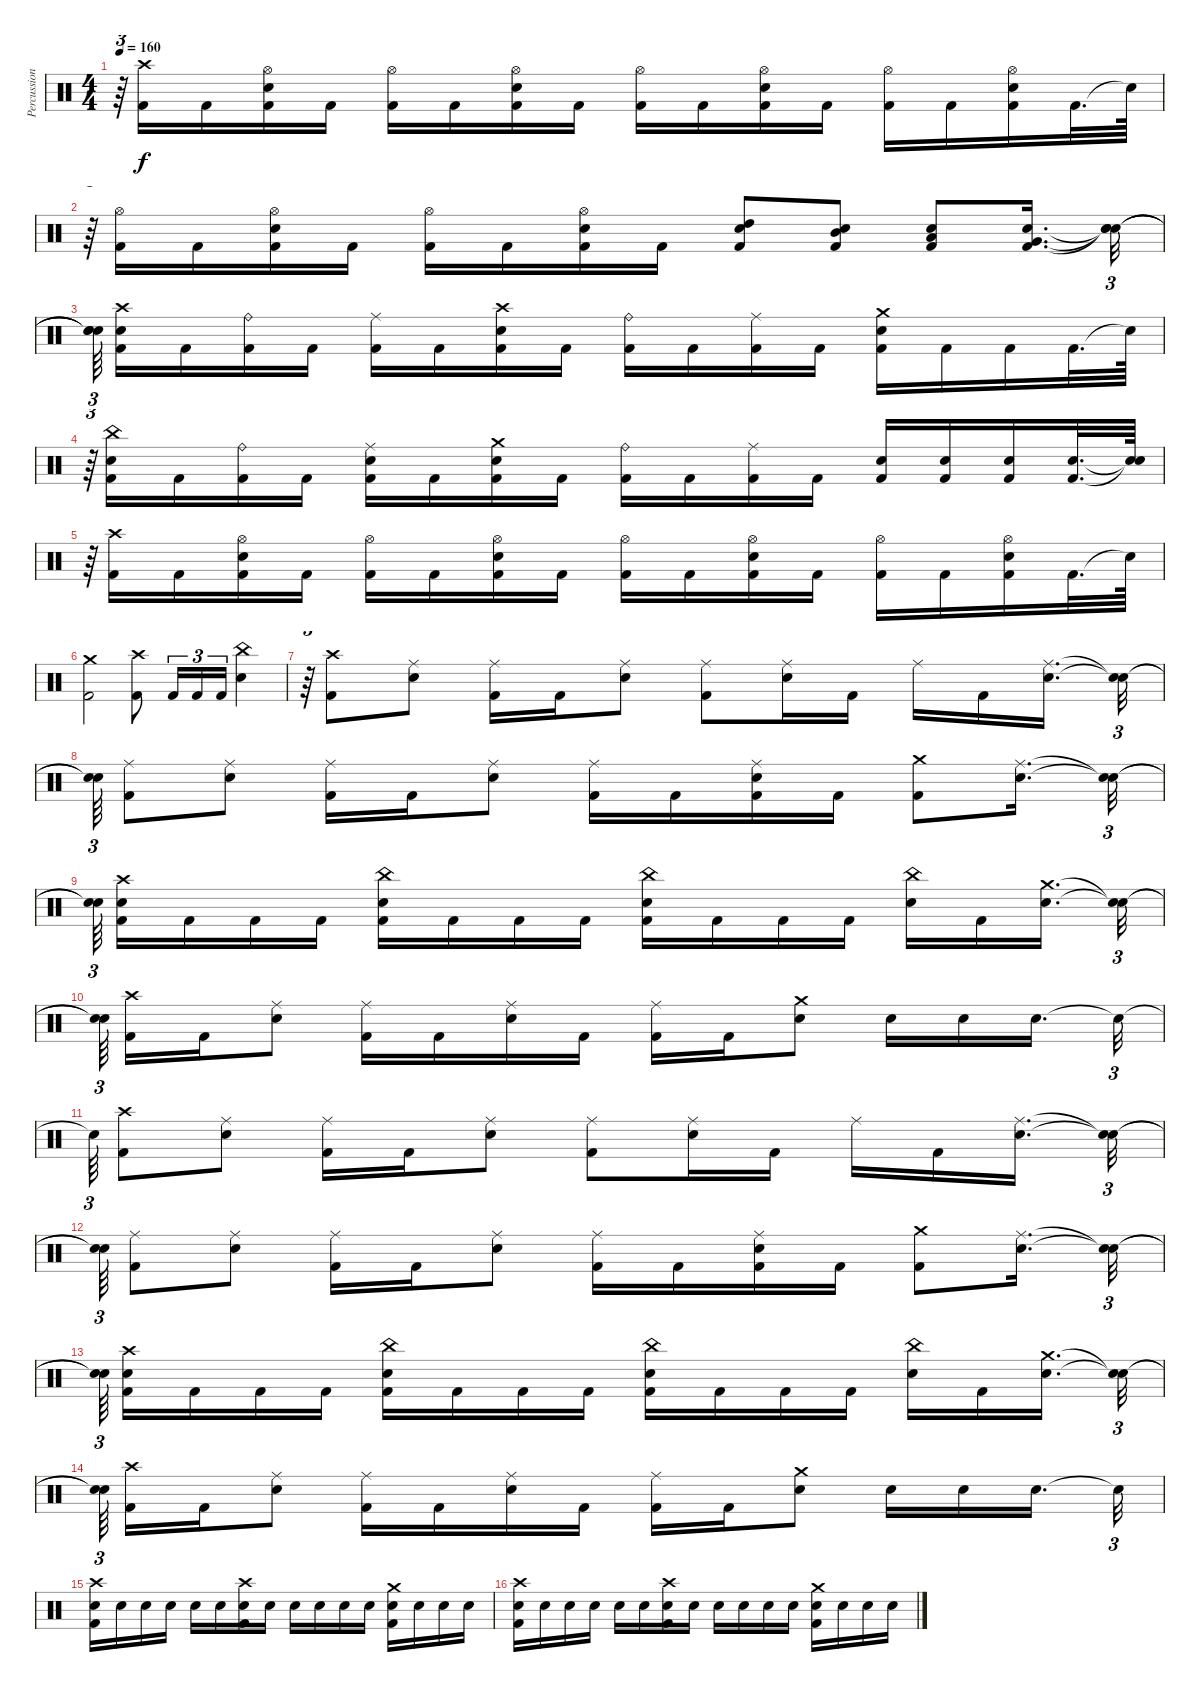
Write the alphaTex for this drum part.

\track ("Percussion" "Percussion") {instrument percussion}
\staff {score}
\articulation defaults
\ts (4 4)
\tempo 160
\clef neutral
\ks c
r.64{tu (3 2) dy f} ("Crash high (hit)" "Kick (hit) 2").16 "Kick (hit) 2".16 ("Hi-Hat (open)" "Electric Snare (hit)" "Kick (hit) 2").16 "Kick (hit) 2".16 ("Hi-Hat (open)" "Kick (hit) 2").16 "Kick (hit) 2".16 ("Hi-Hat (open)" "Electric Snare (hit)" "Kick (hit) 2").16 "Kick (hit) 2".16 ("Hi-Hat (open)" "Kick (hit) 2").16 "Kick (hit) 2".16 ("Hi-Hat (open)" "Electric Snare (hit)" "Kick (hit) 2").16 "Kick (hit) 2".16 ("Hi-Hat (open)" "Kick (hit) 2").16 "Kick (hit) 2".16 ("Hi-Hat (open)" "Electric Snare (hit)" "Kick (hit) 2").16 "Kick (hit) 2".32{d} "Snare (hit)"{t}.64 |
r.64{tu (3 2)} ("Hi-Hat (open)" "Kick (hit) 2").16 "Kick (hit) 2".16 ("Hi-Hat (open)" "Electric Snare (hit)" "Kick (hit) 2").16 "Kick (hit) 2".16 ("Hi-Hat (open)" "Kick (hit) 2").16 "Kick (hit) 2".16 ("Hi-Hat (open)" "Electric Snare (hit)" "Kick (hit) 2").16 "Kick (hit) 2".16 ("High Tom (hit)" "Electric Snare (hit)" "Kick (hit) 2").8 ("Mid Tom (hit)" "Electric Snare (hit)" "Kick (hit) 2").8 ("Low Tom (hit)" "Electric Snare (hit)" "Kick (hit) 2").8 ("Very Low Tom (hit)" "Electric Snare (hit)" "Kick (hit) 2").16{d} ("Snare (hit)"{t} "Snare (hit)"{t} "Snare (hit)"{t}).32{tu (3 2)} |
("Snare (hit)"{t} "Snare (hit)"{t} "Snare (hit)"{t}).64{tu (3 2)} ("Crash high (hit)" "Electric Snare (hit)" "Kick (hit) 2").16 "Kick (hit) 2".16 ("Ride (bell)" "Kick (hit) 2").16 "Kick (hit) 2".16 ("Ride (middle)" "Kick (hit) 2").16 "Kick (hit) 2".16 ("Crash high (hit)" "Electric Snare (hit)" "Kick (hit) 2").16 "Kick (hit) 2".16 ("Ride (bell)" "Kick (hit) 2").16 "Kick (hit) 2".16 ("Ride (middle)" "Kick (hit) 2").16 "Kick (hit) 2".16 ("Crash medium (hit)" "Electric Snare (hit)" "Kick (hit) 2").16 "Kick (hit) 2".16 "Kick (hit) 2".16 "Kick (hit) 2".32{d} "Snare (hit)"{t}.64 |
r.64{tu (3 2)} ("China (hit)" "Electric Snare (hit)" "Kick (hit) 2").16 "Kick (hit) 2".16 ("Ride (bell)" "Kick (hit) 2").16 "Kick (hit) 2".16 ("Ride (middle)" "Electric Snare (hit)" "Kick (hit) 2").16 "Kick (hit) 2".16 ("Crash medium (hit)" "Electric Snare (hit)" "Kick (hit) 2").16 "Kick (hit) 2".16 ("Ride (bell)" "Kick (hit) 2").16 "Kick (hit) 2".16 ("Ride (middle)" "Kick (hit) 2").16 "Kick (hit) 2".16 ("Electric Snare (hit)" "Kick (hit) 2").16 ("Electric Snare (hit)" "Kick (hit) 2").16 ("Electric Snare (hit)" "Kick (hit) 2").16 ("Electric Snare (hit)" "Kick (hit) 2").32{d} ("Snare (hit)"{t} "Snare (hit)"{t}).64 |
r.64{tu (3 2)} ("Crash high (hit)" "Kick (hit) 2").16 "Kick (hit) 2".16 ("Hi-Hat (open)" "Electric Snare (hit)" "Kick (hit) 2").16 "Kick (hit) 2".16 ("Hi-Hat (open)" "Kick (hit) 2").16 "Kick (hit) 2".16 ("Hi-Hat (open)" "Electric Snare (hit)" "Kick (hit) 2").16 "Kick (hit) 2".16 ("Hi-Hat (open)" "Kick (hit) 2").16 "Kick (hit) 2".16 ("Hi-Hat (open)" "Electric Snare (hit)" "Kick (hit) 2").16 "Kick (hit) 2".16 ("Hi-Hat (open)" "Kick (hit) 2").16 "Kick (hit) 2".16 ("Hi-Hat (open)" "Electric Snare (hit)" "Kick (hit) 2").16 "Kick (hit) 2".32{d} "Snare (hit)"{t}.64 |
("Crash medium (hit)" "Kick (hit) 2").2 ("Crash high (hit)" "Kick (hit) 2").8 "Kick (hit) 2".16{tu (3 2)} "Kick (hit) 2".16{tu (3 2)} "Kick (hit) 2".16{tu (3 2)} ("China (hit)" "Electric Snare (hit)").4 |
r.64{tu (3 2)} ("Crash high (hit)" "Kick (hit) 2").8 ("Ride (middle)" "Electric Snare (hit)").8 ("Ride (middle)" "Kick (hit) 2").16 "Kick (hit) 2".16 ("Ride (middle)" "Electric Snare (hit)").8 ("Ride (middle)" "Kick (hit) 2").8 ("Ride (middle)" "Electric Snare (hit)").16 "Kick (hit) 2".16 "Ride (middle)".16 "Kick (hit) 2".16 ("Ride (middle)" "Electric Snare (hit)").16{d} ("Snare (hit)"{t} "Snare (hit)"{t}).32{tu (3 2)} |
("Snare (hit)"{t} "Snare (hit)"{t}).64{tu (3 2)} ("Ride (middle)" "Kick (hit) 2").8 ("Ride (middle)" "Electric Snare (hit)").8 ("Ride (middle)" "Kick (hit) 2").16 "Kick (hit) 2".16 ("Ride (middle)" "Electric Snare (hit)").8 ("Ride (middle)" "Kick (hit) 2").16 "Kick (hit) 2".16 ("Ride (middle)" "Electric Snare (hit)" "Kick (hit) 2").16 "Kick (hit) 2".16 ("Crash medium (hit)" "Kick (hit) 2").8 ("Ride (middle)" "Electric Snare (hit)").16{d} ("Snare (hit)"{t} "Snare (hit)"{t}).32{tu (3 2)} |
("Snare (hit)"{t} "Snare (hit)"{t}).64{tu (3 2)} ("Crash high (hit)" "Electric Snare (hit)" "Kick (hit) 2").16 "Kick (hit) 2".16 "Kick (hit) 2".16 "Kick (hit) 2".16 ("China (hit)" "Electric Snare (hit)" "Kick (hit) 2").16 "Kick (hit) 2".16 "Kick (hit) 2".16 "Kick (hit) 2".16 ("China (hit)" "Electric Snare (hit)" "Kick (hit) 2").16 "Kick (hit) 2".16 "Kick (hit) 2".16 "Kick (hit) 2".16 ("China (hit)" "Electric Snare (hit)").16 "Kick (hit) 2".16 ("Crash medium (hit)" "Electric Snare (hit)").16{d} ("Snare (hit)"{t} "Snare (hit)"{t}).32{tu (3 2)} |
("Snare (hit)"{t} "Snare (hit)"{t}).64{tu (3 2)} ("Crash high (hit)" "Kick (hit) 2").16 "Kick (hit) 2".16 ("Ride (middle)" "Electric Snare (hit)").8 ("Ride (middle)" "Kick (hit) 2").16 "Kick (hit) 2".16 ("Ride (middle)" "Electric Snare (hit)").16 "Kick (hit) 2".16 ("Ride (middle)" "Kick (hit) 2").16 "Kick (hit) 2".16 ("Crash medium (hit)" "Electric Snare (hit)").8 "Electric Snare (hit)".16 "Electric Snare (hit)".16 "Electric Snare (hit)".16{d} "Snare (hit)"{t}.32{tu (3 2)} |
"Snare (hit)"{t}.64{tu (3 2)} ("Crash high (hit)" "Kick (hit) 2").8 ("Ride (middle)" "Electric Snare (hit)").8 ("Ride (middle)" "Kick (hit) 2").16 "Kick (hit) 2".16 ("Ride (middle)" "Electric Snare (hit)").8 ("Ride (middle)" "Kick (hit) 2").8 ("Ride (middle)" "Electric Snare (hit)").16 "Kick (hit) 2".16 "Ride (middle)".16 "Kick (hit) 2".16 ("Ride (middle)" "Electric Snare (hit)").16{d} ("Snare (hit)"{t} "Snare (hit)"{t}).32{tu (3 2)} |
("Snare (hit)"{t} "Snare (hit)"{t}).64{tu (3 2)} ("Ride (middle)" "Kick (hit) 2").8 ("Ride (middle)" "Electric Snare (hit)").8 ("Ride (middle)" "Kick (hit) 2").16 "Kick (hit) 2".16 ("Ride (middle)" "Electric Snare (hit)").8 ("Ride (middle)" "Kick (hit) 2").16 "Kick (hit) 2".16 ("Ride (middle)" "Electric Snare (hit)" "Kick (hit) 2").16 "Kick (hit) 2".16 ("Crash medium (hit)" "Kick (hit) 2").8 ("Ride (middle)" "Electric Snare (hit)").16{d} ("Snare (hit)"{t} "Snare (hit)"{t}).32{tu (3 2)} |
("Snare (hit)"{t} "Snare (hit)"{t}).64{tu (3 2)} ("Crash high (hit)" "Electric Snare (hit)" "Kick (hit) 2").16 "Kick (hit) 2".16 "Kick (hit) 2".16 "Kick (hit) 2".16 ("China (hit)" "Electric Snare (hit)" "Kick (hit) 2").16 "Kick (hit) 2".16 "Kick (hit) 2".16 "Kick (hit) 2".16 ("China (hit)" "Electric Snare (hit)" "Kick (hit) 2").16 "Kick (hit) 2".16 "Kick (hit) 2".16 "Kick (hit) 2".16 ("China (hit)" "Electric Snare (hit)").16 "Kick (hit) 2".16 ("Crash medium (hit)" "Electric Snare (hit)").16{d} ("Snare (hit)"{t} "Snare (hit)"{t}).32{tu (3 2)} |
("Snare (hit)"{t} "Snare (hit)"{t}).64{tu (3 2)} ("Crash high (hit)" "Kick (hit) 2").16 "Kick (hit) 2".16 ("Ride (middle)" "Electric Snare (hit)").8 ("Ride (middle)" "Kick (hit) 2").16 "Kick (hit) 2".16 ("Ride (middle)" "Electric Snare (hit)").16 "Kick (hit) 2".16 ("Ride (middle)" "Kick (hit) 2").16 "Kick (hit) 2".16 ("Crash medium (hit)" "Electric Snare (hit)").8 "Electric Snare (hit)".16 "Electric Snare (hit)".16 "Electric Snare (hit)".16{d} "Snare (hit)"{t}.32{tu (3 2)} |
("Snare (hit) 2" "Kick (hit) 2" "Crash high (hit)").16 "Snare (hit) 2".16 "Snare (hit) 2".16 "Snare (hit) 2".16 "Snare (hit) 2".16 "Snare (hit) 2".16 ("Snare (hit) 2" "Kick (hit) 2" "Crash high (hit)").16 "Snare (hit) 2".16 "Snare (hit) 2".16 "Snare (hit) 2".16 "Snare (hit) 2".16 "Snare (hit) 2".16 ("Snare (hit) 2" "Kick (hit) 2" "Crash medium (hit)").16 "Snare (hit) 2".16 "Snare (hit) 2".16 "Snare (hit) 2".16 |
("Snare (hit) 2" "Kick (hit) 2" "Crash high (hit)").16 "Snare (hit) 2".16 "Snare (hit) 2".16 "Snare (hit) 2".16 "Snare (hit) 2".16 "Snare (hit) 2".16 ("Snare (hit) 2" "Kick (hit) 2" "Crash high (hit)").16 "Snare (hit) 2".16 "Snare (hit) 2".16 "Snare (hit) 2".16 "Snare (hit) 2".16 "Snare (hit) 2".16 ("Snare (hit) 2" "Kick (hit) 2" "Crash medium (hit)").16 "Snare (hit) 2".16 "Snare (hit) 2".16 "Snare (hit) 2".16
